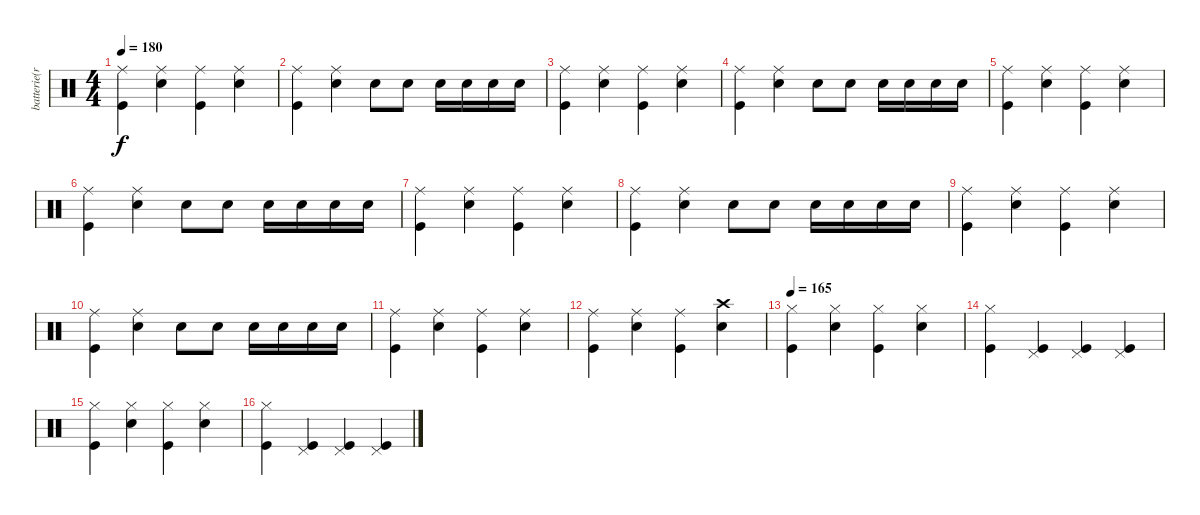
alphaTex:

\track ("batterie(rimbaud)" "batterie(r") {instrument percussion}
\staff {score}
\articulation defaults
\ts (4 4)
\tempo 180
\clef neutral
\ks c
("Ride (middle)" "Kick (hit)").4{dy f} ("Ride (middle)" "Snare (hit) 2").4 ("Ride (middle)" "Kick (hit)").4 ("Ride (middle)" "Snare (hit) 2").4 |
("Ride (middle)" "Kick (hit)").4 ("Ride (middle)" "Snare (hit) 2").4 "Snare (hit) 2".8 "Snare (hit) 2".8 "Snare (hit) 2".16 "Snare (hit) 2".16 "Snare (hit) 2".16 "Snare (hit) 2".16 |
("Ride (middle)" "Kick (hit)").4 ("Ride (middle)" "Snare (hit) 2").4 ("Ride (middle)" "Kick (hit)").4 ("Ride (middle)" "Snare (hit) 2").4 |
("Ride (middle)" "Kick (hit)").4 ("Ride (middle)" "Snare (hit) 2").4 "Snare (hit) 2".8 "Snare (hit) 2".8 "Snare (hit) 2".16 "Snare (hit) 2".16 "Snare (hit) 2".16 "Snare (hit) 2".16 |
("Ride (middle)" "Kick (hit)").4 ("Ride (middle)" "Snare (hit) 2").4 ("Ride (middle)" "Kick (hit)").4 ("Ride (middle)" "Snare (hit) 2").4 |
("Ride (middle)" "Kick (hit)").4 ("Ride (middle)" "Snare (hit) 2").4 "Snare (hit) 2".8 "Snare (hit) 2".8 "Snare (hit) 2".16 "Snare (hit) 2".16 "Snare (hit) 2".16 "Snare (hit) 2".16 |
("Ride (middle)" "Kick (hit)").4 ("Ride (middle)" "Snare (hit) 2").4 ("Ride (middle)" "Kick (hit)").4 ("Ride (middle)" "Snare (hit) 2").4 |
("Ride (middle)" "Kick (hit)").4 ("Ride (middle)" "Snare (hit) 2").4 "Snare (hit) 2".8 "Snare (hit) 2".8 "Snare (hit) 2".16 "Snare (hit) 2".16 "Snare (hit) 2".16 "Snare (hit) 2".16 |
("Ride (middle)" "Kick (hit)").4 ("Ride (middle)" "Snare (hit) 2").4 ("Ride (middle)" "Kick (hit)").4 ("Ride (middle)" "Snare (hit) 2").4 |
("Ride (middle)" "Kick (hit)").4 ("Ride (middle)" "Snare (hit) 2").4 "Snare (hit) 2".8 "Snare (hit) 2".8 "Snare (hit) 2".16 "Snare (hit) 2".16 "Snare (hit) 2".16 "Snare (hit) 2".16 |
("Ride (middle)" "Kick (hit)").4 ("Ride (middle)" "Snare (hit) 2").4 ("Ride (middle)" "Kick (hit)").4 ("Ride (middle)" "Snare (hit) 2").4 |
("Ride (middle)" "Kick (hit)").4 ("Ride (middle)" "Snare (hit) 2").4 ("Ride (middle)" "Kick (hit)").4 ("Crash high (hit)" "Snare (hit) 2").4 |
\tempo 165
("Hi-Hat (closed)" "Kick (hit)").4 ("Hi-Hat (closed)" "Snare (hit) 2").4 ("Hi-Hat (closed)" "Kick (hit)").4 ("Hi-Hat (closed)" "Snare (hit) 2").4 |
("Hi-Hat (closed)" "Kick (hit)").4 ("Pedal Hi-Hat (hit)" "Kick (hit)").4 ("Pedal Hi-Hat (hit)" "Kick (hit)").4 ("Pedal Hi-Hat (hit)" "Kick (hit)").4 |
("Hi-Hat (closed)" "Kick (hit)").4 ("Hi-Hat (closed)" "Snare (hit) 2").4 ("Hi-Hat (closed)" "Kick (hit)").4 ("Hi-Hat (closed)" "Snare (hit) 2").4 |
("Hi-Hat (closed)" "Kick (hit)").4 ("Pedal Hi-Hat (hit)" "Kick (hit)").4 ("Pedal Hi-Hat (hit)" "Kick (hit)").4 ("Pedal Hi-Hat (hit)" "Kick (hit)").4
